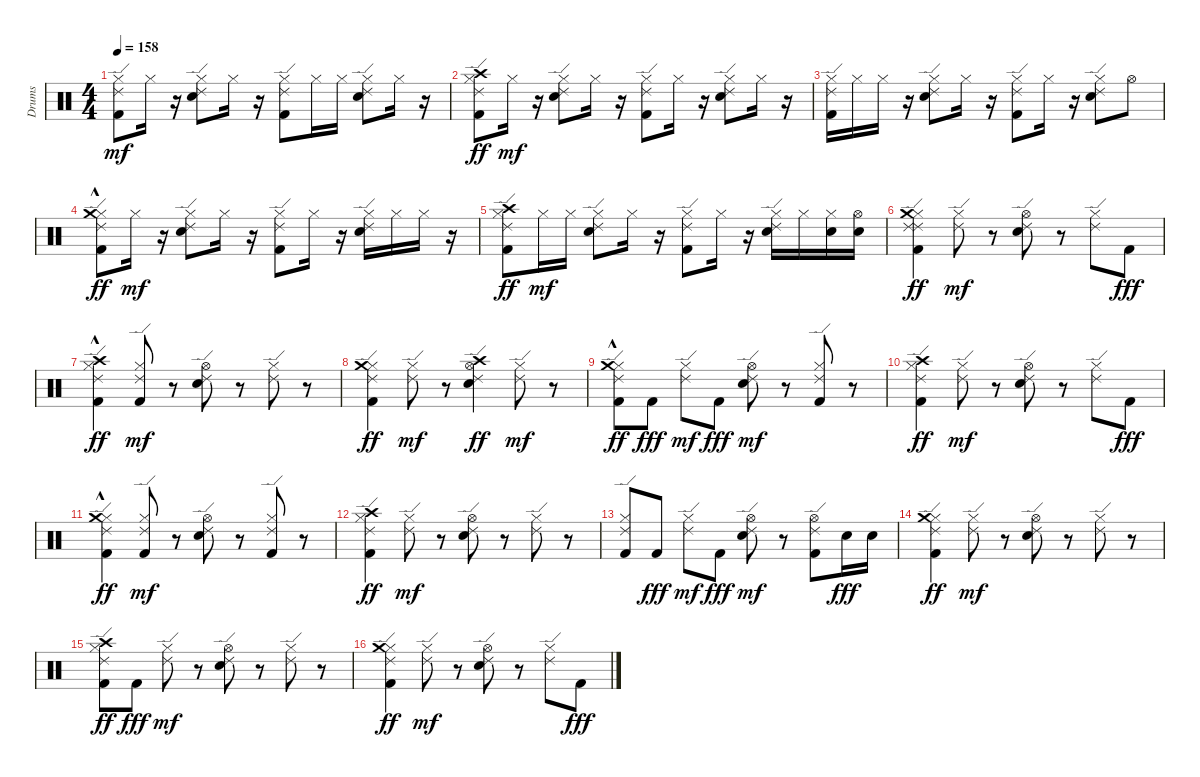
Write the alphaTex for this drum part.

\track ("Drums" "Drums") {instrument percussion}
\staff {score}
\articulation defaults
\ts (4 4)
\tempo 158
\clef neutral
\ks c
("Kick (hit) 2" "Hi-Hat (closed)" "Ride (edge) 2").8{dy mf} "Hi-Hat (closed)".16 r.16 ("Snare (hit) 2" "Hi-Hat (closed)" "Ride (edge) 2").8 "Hi-Hat (closed)".16 r.16 ("Kick (hit) 2" "Hi-Hat (closed)" "Ride (edge) 2").8 "Hi-Hat (closed)".16 "Hi-Hat (closed)".16 ("Snare (hit) 2" "Hi-Hat (closed)" "Ride (edge) 2").8 "Hi-Hat (closed)".16 r.16 |
("Kick (hit) 2" "Hi-Hat (closed)" "Ride (edge) 2" "Crash high (hit)").8{dy ff} "Hi-Hat (closed)".16{dy mf} r.16 ("Snare (hit) 2" "Hi-Hat (closed)" "Ride (edge) 2").8 "Hi-Hat (closed)".16 r.16 ("Kick (hit) 2" "Hi-Hat (closed)" "Ride (edge) 2").8 "Hi-Hat (closed)".16 r.16 ("Snare (hit) 2" "Hi-Hat (closed)" "Ride (edge) 2").8 "Hi-Hat (closed)".16 r.16 |
("Kick (hit) 2" "Hi-Hat (closed)" "Ride (edge) 2").16 "Hi-Hat (closed)".16 "Hi-Hat (closed)".16 r.16 ("Snare (hit) 2" "Hi-Hat (closed)" "Ride (edge) 2").8 "Hi-Hat (closed)".16 r.16 ("Kick (hit) 2" "Hi-Hat (closed)" "Ride (edge) 2").8 "Hi-Hat (closed)".16 r.16 ("Snare (hit) 2" "Hi-Hat (closed)" "Ride (edge) 2").8 "Hi-Hat (open)".8 |
("Kick (hit) 2" "Hi-Hat (closed)" "Ride (edge) 2" "Crash medium (hit)"{hac}).8{dy ff} "Hi-Hat (closed)".16{dy mf} r.16 ("Snare (hit) 2" "Hi-Hat (closed)" "Ride (edge) 2").8 "Hi-Hat (closed)".16 r.16 ("Kick (hit) 2" "Hi-Hat (closed)" "Ride (edge) 2").8 "Hi-Hat (closed)".16 r.16 ("Snare (hit) 2" "Hi-Hat (closed)" "Ride (edge) 2").16 "Hi-Hat (closed)".16 "Hi-Hat (closed)".16 r.16 |
("Kick (hit) 2" "Hi-Hat (closed)" "Ride (edge) 2" "Crash high (hit)").8{dy ff} "Hi-Hat (closed)".16{dy mf} "Hi-Hat (closed)".16 ("Snare (hit) 2" "Hi-Hat (closed)" "Ride (edge) 2").8 "Hi-Hat (closed)".16 r.16 ("Kick (hit) 2" "Hi-Hat (closed)" "Ride (edge) 2").8 "Hi-Hat (closed)".16 r.16 ("Snare (hit) 2" "Hi-Hat (closed)" "Ride (edge) 2").16 "Hi-Hat (closed)".16 ("Snare (hit) 2" "Hi-Hat (closed)").16 ("Snare (hit) 2" "Hi-Hat (open)").16 |
("Kick (hit) 2" "Hi-Hat (closed)" "Ride (edge) 2" "Ride (edge) 2" "Crash medium (hit)").4{dy ff} ("Hi-Hat (closed)" "Ride (edge) 2").8{dy mf} r.8 ("Snare (hit) 2" "Hi-Hat (open)" "Ride (edge) 2").8 r.8 ("Hi-Hat (closed)" "Ride (edge) 2").8 "Kick (hit) 2".8{dy fff} |
("Kick (hit) 2" "Hi-Hat (closed)" "Ride (edge) 2" "Crash high (hit)"{hac}).4{dy ff} ("Kick (hit) 2" "Hi-Hat (closed)" "Ride (edge) 2").8{dy mf} r.8 ("Snare (hit) 2" "Hi-Hat (open)" "Ride (edge) 2").8 r.8 ("Hi-Hat (closed)" "Ride (edge) 2").8 r.8 |
("Kick (hit) 2" "Hi-Hat (closed)" "Ride (edge) 2" "Crash medium (hit)").4{dy ff} ("Hi-Hat (closed)" "Ride (edge) 2").8{dy mf} r.8 ("Snare (hit) 2" "Hi-Hat (open)" "Ride (edge) 2" "Crash high (hit)").4{dy ff} ("Hi-Hat (closed)" "Ride (edge) 2").8{dy mf} r.8 |
("Kick (hit) 2" "Hi-Hat (closed)" "Ride (edge) 2" "Crash medium (hit)"{hac}).8{dy ff} "Kick (hit) 2".8{dy fff} ("Hi-Hat (closed)" "Ride (edge) 2").8{dy mf} "Kick (hit) 2".8{dy fff} ("Snare (hit) 2" "Hi-Hat (open)" "Ride (edge) 2").8{dy mf} r.8 ("Kick (hit) 2" "Hi-Hat (closed)" "Ride (edge) 2").8 r.8 |
("Kick (hit) 2" "Hi-Hat (closed)" "Ride (edge) 2" "Crash high (hit)").4{dy ff} ("Hi-Hat (closed)" "Ride (edge) 2").8{dy mf} r.8 ("Snare (hit) 2" "Hi-Hat (open)" "Ride (edge) 2").8 r.8 ("Hi-Hat (closed)" "Ride (edge) 2").8 "Kick (hit) 2".8{dy fff} |
("Kick (hit) 2" "Hi-Hat (closed)" "Ride (edge) 2" "Crash medium (hit)"{hac}).4{dy ff} ("Kick (hit) 2" "Hi-Hat (closed)" "Ride (edge) 2").8{dy mf} r.8 ("Snare (hit) 2" "Hi-Hat (open)" "Ride (edge) 2").8 r.8 ("Kick (hit) 2" "Hi-Hat (closed)" "Ride (edge) 2").8 r.8 |
("Kick (hit) 2" "Hi-Hat (closed)" "Ride (edge) 2" "Crash high (hit)").4{dy ff} ("Hi-Hat (closed)" "Ride (edge) 2").8{dy mf} r.8 ("Snare (hit) 2" "Hi-Hat (open)" "Ride (edge) 2").8 r.8 ("Hi-Hat (closed)" "Ride (edge) 2").8 r.8 |
("Kick (hit) 2" "Hi-Hat (closed)" "Ride (edge) 2").8 "Kick (hit) 2".8{dy fff} ("Hi-Hat (closed)" "Ride (edge) 2").8{dy mf} "Kick (hit) 2".8{dy fff} ("Snare (hit) 2" "Hi-Hat (open)" "Ride (edge) 2").8{dy mf} r.8 ("Kick (hit) 2" "Hi-Hat (open)" "Ride (edge) 2").8 "Snare (hit) 2".16{dy fff} "Snare (hit) 2".16 |
("Kick (hit) 2" "Hi-Hat (closed)" "Ride (edge) 2" "Crash medium (hit)").4{dy ff} ("Hi-Hat (closed)" "Ride (edge) 2").8{dy mf} r.8 ("Snare (hit) 2" "Hi-Hat (open)" "Ride (edge) 2").8 r.8 ("Hi-Hat (closed)" "Ride (edge) 2").8 r.8 |
("Kick (hit) 2" "Hi-Hat (closed)" "Ride (edge) 2" "Crash high (hit)").8{dy ff} "Kick (hit) 2".8{dy fff} ("Hi-Hat (closed)" "Ride (edge) 2").8{dy mf} r.8 ("Snare (hit) 2" "Hi-Hat (open)" "Ride (edge) 2").8 r.8 ("Hi-Hat (closed)" "Ride (edge) 2").8 r.8 |
("Kick (hit) 2" "Hi-Hat (closed)" "Ride (edge) 2" "Crash medium (hit)").4{dy ff} ("Hi-Hat (closed)" "Ride (edge) 2").8{dy mf} r.8 ("Snare (hit) 2" "Hi-Hat (open)" "Ride (edge) 2").8 r.8 ("Hi-Hat (closed)" "Ride (edge) 2").8 "Kick (hit) 2".8{dy fff}
